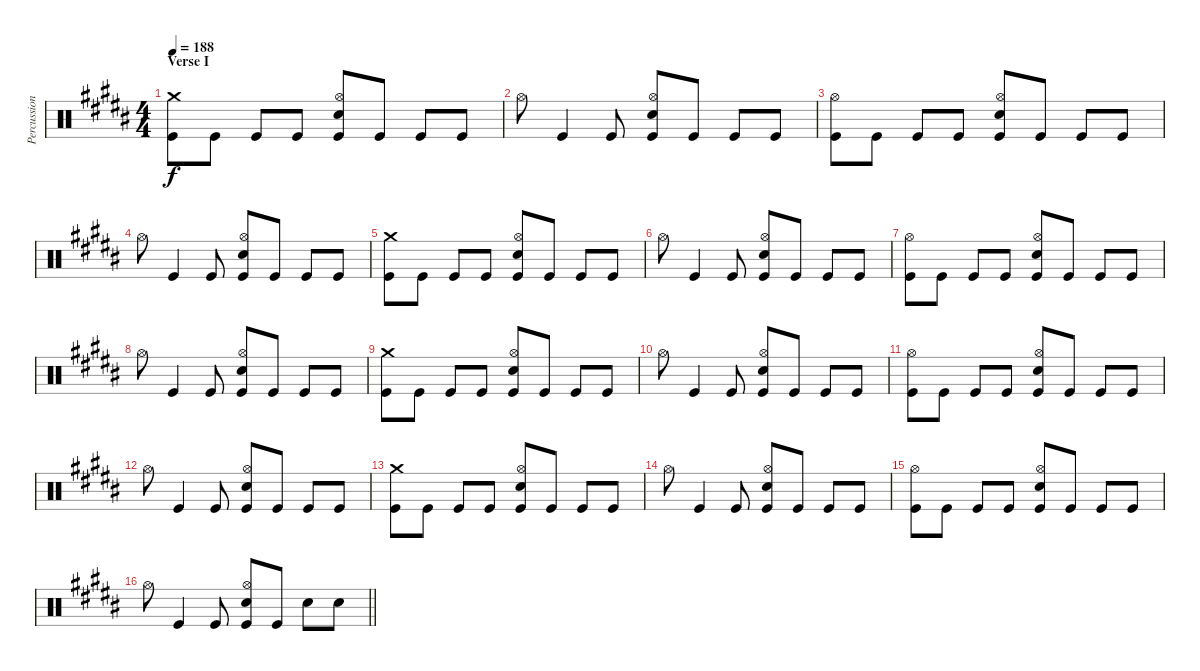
\track ("Percussion" "Percussion") {instrument percussion}
\staff {score}
\articulation defaults
\ts (4 4)
\section ("" "Verse I")
\tempo 188
\clef neutral
\ks b
("Crash medium (hit)" "Kick (hit)").8{dy f} "Kick (hit)".8 "Kick (hit)".8 "Kick (hit)".8 ("Hi-Hat (open)" "Electric Snare (hit)" "Kick (hit)").8 "Kick (hit)".8 "Kick (hit)".8 "Kick (hit)".8 |
"Hi-Hat (open)".8 "Kick (hit)".4 "Kick (hit)".8 ("Hi-Hat (open)" "Electric Snare (hit)" "Kick (hit)").8 "Kick (hit)".8 "Kick (hit)".8 "Kick (hit)".8 |
("Hi-Hat (open)" "Kick (hit)").8 "Kick (hit)".8 "Kick (hit)".8 "Kick (hit)".8 ("Hi-Hat (open)" "Electric Snare (hit)" "Kick (hit)").8 "Kick (hit)".8 "Kick (hit)".8 "Kick (hit)".8 |
"Hi-Hat (open)".8 "Kick (hit)".4 "Kick (hit)".8 ("Hi-Hat (open)" "Electric Snare (hit)" "Kick (hit)").8 "Kick (hit)".8 "Kick (hit)".8 "Kick (hit)".8 |
("Crash medium (hit)" "Kick (hit)").8 "Kick (hit)".8 "Kick (hit)".8 "Kick (hit)".8 ("Hi-Hat (open)" "Electric Snare (hit)" "Kick (hit)").8 "Kick (hit)".8 "Kick (hit)".8 "Kick (hit)".8 |
"Hi-Hat (open)".8 "Kick (hit)".4 "Kick (hit)".8 ("Hi-Hat (open)" "Electric Snare (hit)" "Kick (hit)").8 "Kick (hit)".8 "Kick (hit)".8 "Kick (hit)".8 |
("Hi-Hat (open)" "Kick (hit)").8 "Kick (hit)".8 "Kick (hit)".8 "Kick (hit)".8 ("Hi-Hat (open)" "Electric Snare (hit)" "Kick (hit)").8 "Kick (hit)".8 "Kick (hit)".8 "Kick (hit)".8 |
"Hi-Hat (open)".8 "Kick (hit)".4 "Kick (hit)".8 ("Hi-Hat (open)" "Electric Snare (hit)" "Kick (hit)").8 "Kick (hit)".8 "Kick (hit)".8 "Kick (hit)".8 |
("Crash medium (hit)" "Kick (hit)").8 "Kick (hit)".8 "Kick (hit)".8 "Kick (hit)".8 ("Hi-Hat (open)" "Electric Snare (hit)" "Kick (hit)").8 "Kick (hit)".8 "Kick (hit)".8 "Kick (hit)".8 |
"Hi-Hat (open)".8 "Kick (hit)".4 "Kick (hit)".8 ("Hi-Hat (open)" "Electric Snare (hit)" "Kick (hit)").8 "Kick (hit)".8 "Kick (hit)".8 "Kick (hit)".8 |
("Hi-Hat (open)" "Kick (hit)").8 "Kick (hit)".8 "Kick (hit)".8 "Kick (hit)".8 ("Hi-Hat (open)" "Electric Snare (hit)" "Kick (hit)").8 "Kick (hit)".8 "Kick (hit)".8 "Kick (hit)".8 |
"Hi-Hat (open)".8 "Kick (hit)".4 "Kick (hit)".8 ("Hi-Hat (open)" "Electric Snare (hit)" "Kick (hit)").8 "Kick (hit)".8 "Kick (hit)".8 "Kick (hit)".8 |
("Crash medium (hit)" "Kick (hit)").8 "Kick (hit)".8 "Kick (hit)".8 "Kick (hit)".8 ("Hi-Hat (open)" "Electric Snare (hit)" "Kick (hit)").8 "Kick (hit)".8 "Kick (hit)".8 "Kick (hit)".8 |
"Hi-Hat (open)".8 "Kick (hit)".4 "Kick (hit)".8 ("Hi-Hat (open)" "Electric Snare (hit)" "Kick (hit)").8 "Kick (hit)".8 "Kick (hit)".8 "Kick (hit)".8 |
("Hi-Hat (open)" "Kick (hit)").8 "Kick (hit)".8 "Kick (hit)".8 "Kick (hit)".8 ("Hi-Hat (open)" "Electric Snare (hit)" "Kick (hit)").8 "Kick (hit)".8 "Kick (hit)".8 "Kick (hit)".8 |
\barLineRight lightlight "Hi-Hat (open)".8 "Kick (hit)".4 "Kick (hit)".8
("Hi-Hat (open)" "Electric Snare (hit)" "Kick (hit)").8 "Kick (hit)".8 "Electric Snare (hit)".8 "Electric Snare (hit)".8
